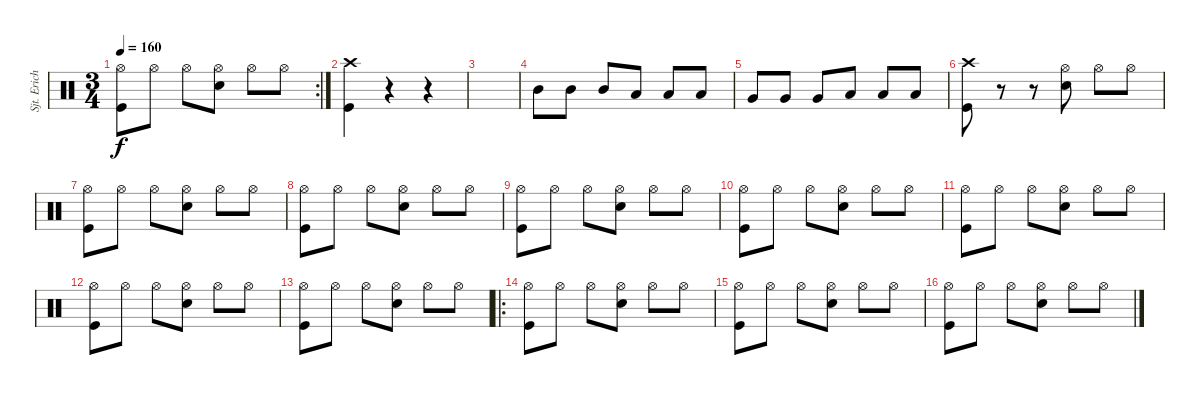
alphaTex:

\track ("Sjt. Erichsen" "Sjt. Erich") {instrument percussion}
\staff {score}
\articulation defaults
\rc 2
\ts (3 4)
\tempo 160
\clef neutral
\ks c
("Hi-Hat (open)" "Kick (hit)").8{dy f} "Hi-Hat (open)".8 "Hi-Hat (open)".8 ("Hi-Hat (open)" "Electric Snare (hit)").8 "Hi-Hat (open)".8 "Hi-Hat (open)".8 |
("Crash high (hit)" "Kick (hit)").4 r.4 r.4 |
|
"Mid Tom (hit)".8 "Mid Tom (hit)".8 "Mid Tom (hit)".8 "Low Tom (hit)".8 "Low Tom (hit)".8 "Low Tom (hit)".8 |
"Very Low Tom (hit)".8 "Very Low Tom (hit)".8 "Very Low Tom (hit)".8 "Low Floor Tom (hit)".8 "Low Floor Tom (hit)".8 "Low Floor Tom (hit)".8 |
("Crash high (hit)" "Kick (hit)").8 r.8 r.8 ("Hi-Hat (open)" "Electric Snare (hit)").8 "Hi-Hat (open)".8 "Hi-Hat (open)".8 |
("Hi-Hat (open)" "Kick (hit)").8 "Hi-Hat (open)".8 "Hi-Hat (open)".8 ("Hi-Hat (open)" "Electric Snare (hit)").8 "Hi-Hat (open)".8 "Hi-Hat (open)".8 |
("Hi-Hat (open)" "Kick (hit)").8 "Hi-Hat (open)".8 "Hi-Hat (open)".8 ("Hi-Hat (open)" "Electric Snare (hit)").8 "Hi-Hat (open)".8 "Hi-Hat (open)".8 |
("Hi-Hat (open)" "Kick (hit)").8 "Hi-Hat (open)".8 "Hi-Hat (open)".8 ("Hi-Hat (open)" "Electric Snare (hit)").8 "Hi-Hat (open)".8 "Hi-Hat (open)".8 |
("Hi-Hat (open)" "Kick (hit)").8 "Hi-Hat (open)".8 "Hi-Hat (open)".8 ("Hi-Hat (open)" "Electric Snare (hit)").8 "Hi-Hat (open)".8 "Hi-Hat (open)".8 |
("Hi-Hat (open)" "Kick (hit)").8 "Hi-Hat (open)".8 "Hi-Hat (open)".8 ("Hi-Hat (open)" "Electric Snare (hit)").8 "Hi-Hat (open)".8 "Hi-Hat (open)".8 |
("Hi-Hat (open)" "Kick (hit)").8 "Hi-Hat (open)".8 "Hi-Hat (open)".8 ("Hi-Hat (open)" "Electric Snare (hit)").8 "Hi-Hat (open)".8 "Hi-Hat (open)".8 |
("Hi-Hat (open)" "Kick (hit)").8 "Hi-Hat (open)".8 "Hi-Hat (open)".8 ("Hi-Hat (open)" "Electric Snare (hit)").8 "Hi-Hat (open)".8 "Hi-Hat (open)".8 |
\ro
("Hi-Hat (open)" "Kick (hit)").8 "Hi-Hat (open)".8 "Hi-Hat (open)".8 ("Hi-Hat (open)" "Electric Snare (hit)").8 "Hi-Hat (open)".8 "Hi-Hat (open)".8 |
("Hi-Hat (open)" "Kick (hit)").8 "Hi-Hat (open)".8 "Hi-Hat (open)".8 ("Hi-Hat (open)" "Electric Snare (hit)").8 "Hi-Hat (open)".8 "Hi-Hat (open)".8 |
("Hi-Hat (open)" "Kick (hit)").8 "Hi-Hat (open)".8 "Hi-Hat (open)".8 ("Hi-Hat (open)" "Electric Snare (hit)").8 "Hi-Hat (open)".8 "Hi-Hat (open)".8
